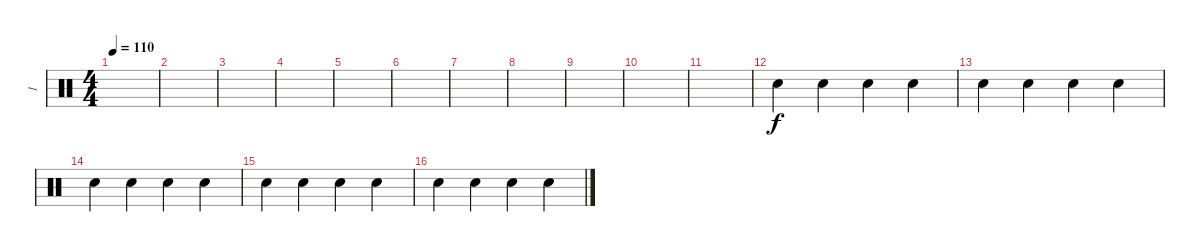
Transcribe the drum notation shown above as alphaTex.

\track ("1" "1") {instrument percussion}
\staff {score}
\articulation defaults
\ts (4 4)
\tempo 110
\clef neutral
\ks c
|
|
|
|
|
|
|
|
|
|
|
"Electric Snare (hit)".4 "Electric Snare (hit)".4 "Electric Snare (hit)".4 "Electric Snare (hit)".4 |
"Electric Snare (hit)".4 "Electric Snare (hit)".4 "Electric Snare (hit)".4 "Electric Snare (hit)".4 |
"Electric Snare (hit)".4 "Electric Snare (hit)".4 "Electric Snare (hit)".4 "Electric Snare (hit)".4 |
"Electric Snare (hit)".4 "Electric Snare (hit)".4 "Electric Snare (hit)".4 "Electric Snare (hit)".4 |
"Electric Snare (hit)".4 "Electric Snare (hit)".4 "Electric Snare (hit)".4 "Electric Snare (hit)".4
